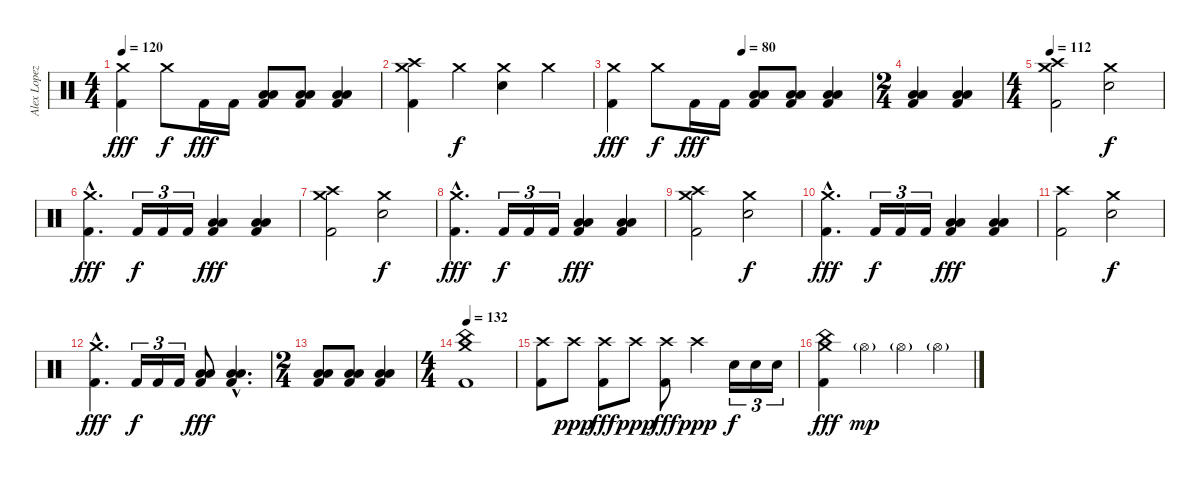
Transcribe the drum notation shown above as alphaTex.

\track ("Alex Lopez" "Alex Lopez") {instrument percussion}
\staff {score}
\articulation defaults
\ts (4 4)
\tempo 120
\clef neutral
\ks c
("Crash medium (hit)" "Kick (hit) 2").4{dy fff} "Crash medium (hit)".8{dy f} "Kick (hit) 2".16{dy fff} "Kick (hit) 2".16 ("Low Tom (hit)" "Low Floor Tom (hit)" "Kick (hit) 2").8 ("Low Tom (hit)" "Low Floor Tom (hit)" "Kick (hit) 2").8 ("Low Tom (hit)" "Low Floor Tom (hit)" "Kick (hit) 2").4 |
("Crash high (hit)" "Crash medium (hit)" "Kick (hit) 2").4 "Crash medium (hit)".4{dy f} ("Crash medium (hit)" "Snare (hit) 2").4 "Crash medium (hit)".4 |
\tempo (80 0.5)
("Crash medium (hit)" "Kick (hit) 2").4{dy fff} "Crash medium (hit)".8{dy f} "Kick (hit) 2".16{dy fff} "Kick (hit) 2".16 ("Low Tom (hit)" "Low Floor Tom (hit)" "Kick (hit) 2").8 ("Low Tom (hit)" "Low Floor Tom (hit)" "Kick (hit) 2").8 ("Low Tom (hit)" "Low Floor Tom (hit)" "Kick (hit) 2").4 |
\ts (2 4)
("Low Tom (hit)" "Low Floor Tom (hit)" "Kick (hit) 2").4 ("Low Tom (hit)" "Low Floor Tom (hit)" "Kick (hit) 2").4 |
\ts (4 4)
\tempo 112
("Crash high (hit)" "Crash medium (hit)" "Kick (hit) 2").2 ("Crash medium (hit)" "Snare (hit) 2").2{dy f} |
("Crash medium (hit)"{hac} "Kick (hit) 2"{hac}).4{d dy fff} "Kick (hit) 2".16{tu (3 2) dy f} "Kick (hit) 2".16{tu (3 2)} "Kick (hit) 2".16{tu (3 2)} ("Low Tom (hit)" "Low Floor Tom (hit)" "Kick (hit) 2").4{dy fff} ("Low Tom (hit)" "Low Floor Tom (hit)" "Kick (hit) 2").4 |
("Crash high (hit)" "Crash medium (hit)" "Kick (hit) 2").2 ("Crash medium (hit)" "Snare (hit) 2").2{dy f} |
("Crash medium (hit)"{hac} "Kick (hit) 2"{hac}).4{d dy fff} "Kick (hit) 2".16{tu (3 2) dy f} "Kick (hit) 2".16{tu (3 2)} "Kick (hit) 2".16{tu (3 2)} ("Low Tom (hit)" "Low Floor Tom (hit)" "Kick (hit) 2").4{dy fff} ("Low Tom (hit)" "Low Floor Tom (hit)" "Kick (hit) 2").4 |
("Crash high (hit)" "Crash medium (hit)" "Kick (hit) 2").2 ("Crash medium (hit)" "Snare (hit) 2").2{dy f} |
("Crash medium (hit)"{hac} "Kick (hit) 2"{hac}).4{d dy fff} "Kick (hit) 2".16{tu (3 2) dy f} "Kick (hit) 2".16{tu (3 2)} "Kick (hit) 2".16{tu (3 2)} ("Low Tom (hit)" "Low Floor Tom (hit)" "Kick (hit) 2").4{dy fff} ("Low Tom (hit)" "Low Floor Tom (hit)" "Kick (hit) 2").4 |
("Crash high (hit)" "Kick (hit) 2").2 ("Crash medium (hit)" "Snare (hit) 2").2{dy f} |
("Crash medium (hit)"{hac} "Kick (hit) 2"{hac}).4{d dy fff} "Kick (hit) 2".16{tu (3 2) dy f} "Kick (hit) 2".16{tu (3 2)} "Kick (hit) 2".16{tu (3 2)} ("Low Tom (hit)" "Low Floor Tom (hit)" "Kick (hit) 2").8{dy fff} ("Low Tom (hit)"{hac} "Low Floor Tom (hit)"{hac} "Kick (hit) 2"{hac}).4{d} |
\ts (2 4)
("Low Tom (hit)" "Low Floor Tom (hit)" "Kick (hit) 2").8 ("Low Tom (hit)" "Low Floor Tom (hit)" "Kick (hit) 2").8 ("Low Tom (hit)" "Low Floor Tom (hit)" "Kick (hit) 2").4 |
\ts (4 4)
\tempo 132
("Crash medium (hit)" "China (hit)" "Kick (hit) 2").1 |
("Crash high (hit)" "Kick (hit) 2").8 "Crash high (hit)".8{dy ppp} ("Crash high (hit)" "Kick (hit) 2").8{dy fff} "Crash high (hit)".8{dy ppp} ("Crash high (hit)" "Kick (hit) 2").8{dy fff} "Crash high (hit)".4{dy ppp} "Snare (hit) 2".16{tu (3 2) dy f} "Snare (hit) 2".16{tu (3 2)} "Snare (hit) 2".16{tu (3 2)} |
("Crash medium (hit)" "China (hit)" "Kick (hit) 2").4{dy fff} "Hi-Hat (open)"{g}.4{dy mp} "Hi-Hat (open)"{g}.4 "Hi-Hat (open)"{g}.4
